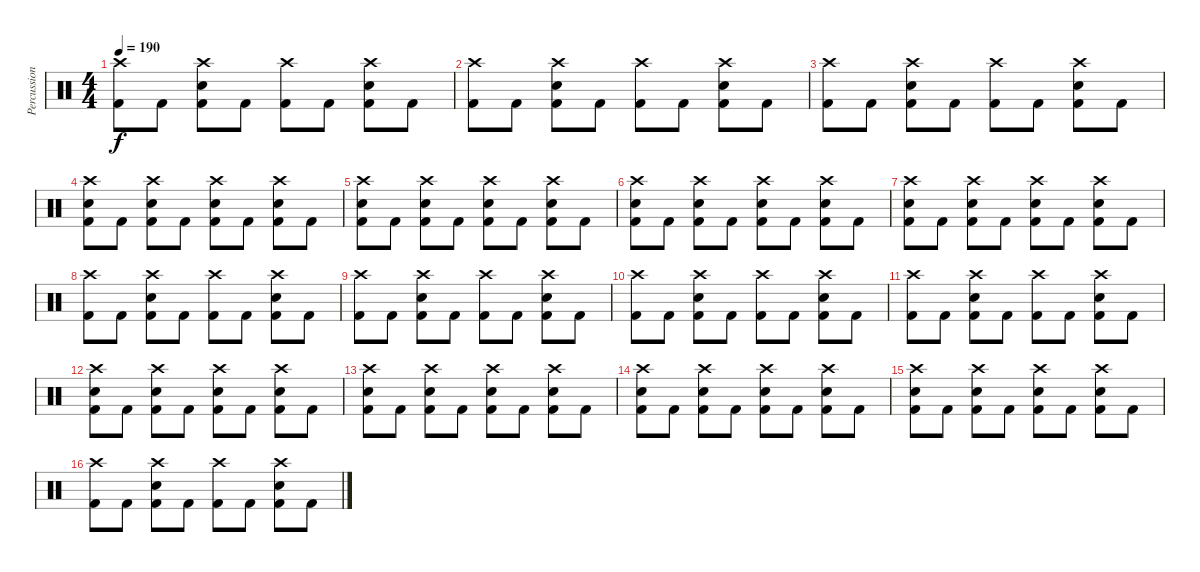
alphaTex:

\track ("Percussion" "Percussion") {instrument percussion}
\staff {score}
\articulation defaults
\ts (4 4)
\tempo 190
\clef neutral
\ks c
("Crash high (hit)" "Kick (hit) 2").8{dy f} "Kick (hit) 2".8 ("Crash high (hit)" "Snare (hit) 2" "Kick (hit) 2").8 "Kick (hit) 2".8 ("Crash high (hit)" "Kick (hit) 2").8 "Kick (hit) 2".8 ("Crash high (hit)" "Snare (hit) 2" "Kick (hit) 2").8 "Kick (hit) 2".8 |
("Crash high (hit)" "Kick (hit) 2").8 "Kick (hit) 2".8 ("Crash high (hit)" "Snare (hit) 2" "Kick (hit) 2").8 "Kick (hit) 2".8 ("Crash high (hit)" "Kick (hit) 2").8 "Kick (hit) 2".8 ("Crash high (hit)" "Snare (hit) 2" "Kick (hit) 2").8 "Kick (hit) 2".8 |
("Crash high (hit)" "Kick (hit) 2").8 "Kick (hit) 2".8 ("Crash high (hit)" "Snare (hit) 2" "Kick (hit) 2").8 "Kick (hit) 2".8 ("Crash high (hit)" "Kick (hit) 2").8 "Kick (hit) 2".8 ("Crash high (hit)" "Snare (hit) 2" "Kick (hit) 2").8 "Kick (hit) 2".8 |
("Crash high (hit)" "Snare (hit) 2" "Kick (hit) 2").8 "Kick (hit) 2".8 ("Crash high (hit)" "Snare (hit) 2" "Kick (hit) 2").8 "Kick (hit) 2".8 ("Crash high (hit)" "Snare (hit) 2" "Kick (hit) 2").8 "Kick (hit) 2".8 ("Crash high (hit)" "Snare (hit) 2" "Kick (hit) 2").8 "Kick (hit) 2".8 |
("Crash high (hit)" "Snare (hit) 2" "Kick (hit) 2").8 "Kick (hit) 2".8 ("Crash high (hit)" "Snare (hit) 2" "Kick (hit) 2").8 "Kick (hit) 2".8 ("Crash high (hit)" "Snare (hit) 2" "Kick (hit) 2").8 "Kick (hit) 2".8 ("Crash high (hit)" "Snare (hit) 2" "Kick (hit) 2").8 "Kick (hit) 2".8 |
("Crash high (hit)" "Snare (hit) 2" "Kick (hit) 2").8 "Kick (hit) 2".8 ("Crash high (hit)" "Snare (hit) 2" "Kick (hit) 2").8 "Kick (hit) 2".8 ("Crash high (hit)" "Snare (hit) 2" "Kick (hit) 2").8 "Kick (hit) 2".8 ("Crash high (hit)" "Snare (hit) 2" "Kick (hit) 2").8 "Kick (hit) 2".8 |
("Crash high (hit)" "Snare (hit) 2" "Kick (hit) 2").8 "Kick (hit) 2".8 ("Crash high (hit)" "Snare (hit) 2" "Kick (hit) 2").8 "Kick (hit) 2".8 ("Crash high (hit)" "Snare (hit) 2" "Kick (hit) 2").8 "Kick (hit) 2".8 ("Crash high (hit)" "Snare (hit) 2" "Kick (hit) 2").8 "Kick (hit) 2".8 |
("Crash high (hit)" "Kick (hit) 2").8 "Kick (hit) 2".8 ("Crash high (hit)" "Snare (hit) 2" "Kick (hit) 2").8 "Kick (hit) 2".8 ("Crash high (hit)" "Kick (hit) 2").8 "Kick (hit) 2".8 ("Crash high (hit)" "Snare (hit) 2" "Kick (hit) 2").8 "Kick (hit) 2".8 |
("Crash high (hit)" "Kick (hit) 2").8 "Kick (hit) 2".8 ("Crash high (hit)" "Snare (hit) 2" "Kick (hit) 2").8 "Kick (hit) 2".8 ("Crash high (hit)" "Kick (hit) 2").8 "Kick (hit) 2".8 ("Crash high (hit)" "Snare (hit) 2" "Kick (hit) 2").8 "Kick (hit) 2".8 |
("Crash high (hit)" "Kick (hit) 2").8 "Kick (hit) 2".8 ("Crash high (hit)" "Snare (hit) 2" "Kick (hit) 2").8 "Kick (hit) 2".8 ("Crash high (hit)" "Kick (hit) 2").8 "Kick (hit) 2".8 ("Crash high (hit)" "Snare (hit) 2" "Kick (hit) 2").8 "Kick (hit) 2".8 |
("Crash high (hit)" "Kick (hit) 2").8 "Kick (hit) 2".8 ("Crash high (hit)" "Snare (hit) 2" "Kick (hit) 2").8 "Kick (hit) 2".8 ("Crash high (hit)" "Kick (hit) 2").8 "Kick (hit) 2".8 ("Crash high (hit)" "Snare (hit) 2" "Kick (hit) 2").8 "Kick (hit) 2".8 |
("Crash high (hit)" "Snare (hit) 2" "Kick (hit) 2").8 "Kick (hit) 2".8 ("Crash high (hit)" "Snare (hit) 2" "Kick (hit) 2").8 "Kick (hit) 2".8 ("Crash high (hit)" "Snare (hit) 2" "Kick (hit) 2").8 "Kick (hit) 2".8 ("Crash high (hit)" "Snare (hit) 2" "Kick (hit) 2").8 "Kick (hit) 2".8 |
("Crash high (hit)" "Snare (hit) 2" "Kick (hit) 2").8 "Kick (hit) 2".8 ("Crash high (hit)" "Snare (hit) 2" "Kick (hit) 2").8 "Kick (hit) 2".8 ("Crash high (hit)" "Snare (hit) 2" "Kick (hit) 2").8 "Kick (hit) 2".8 ("Crash high (hit)" "Snare (hit) 2" "Kick (hit) 2").8 "Kick (hit) 2".8 |
("Crash high (hit)" "Snare (hit) 2" "Kick (hit) 2").8 "Kick (hit) 2".8 ("Crash high (hit)" "Snare (hit) 2" "Kick (hit) 2").8 "Kick (hit) 2".8 ("Crash high (hit)" "Snare (hit) 2" "Kick (hit) 2").8 "Kick (hit) 2".8 ("Crash high (hit)" "Snare (hit) 2" "Kick (hit) 2").8 "Kick (hit) 2".8 |
("Crash high (hit)" "Snare (hit) 2" "Kick (hit) 2").8 "Kick (hit) 2".8 ("Crash high (hit)" "Snare (hit) 2" "Kick (hit) 2").8 "Kick (hit) 2".8 ("Crash high (hit)" "Snare (hit) 2" "Kick (hit) 2").8 "Kick (hit) 2".8 ("Crash high (hit)" "Snare (hit) 2" "Kick (hit) 2").8 "Kick (hit) 2".8 |
("Crash high (hit)" "Kick (hit) 2").8 "Kick (hit) 2".8 ("Crash high (hit)" "Snare (hit) 2" "Kick (hit) 2").8 "Kick (hit) 2".8 ("Crash high (hit)" "Kick (hit) 2").8 "Kick (hit) 2".8 ("Crash high (hit)" "Snare (hit) 2" "Kick (hit) 2").8 "Kick (hit) 2".8
